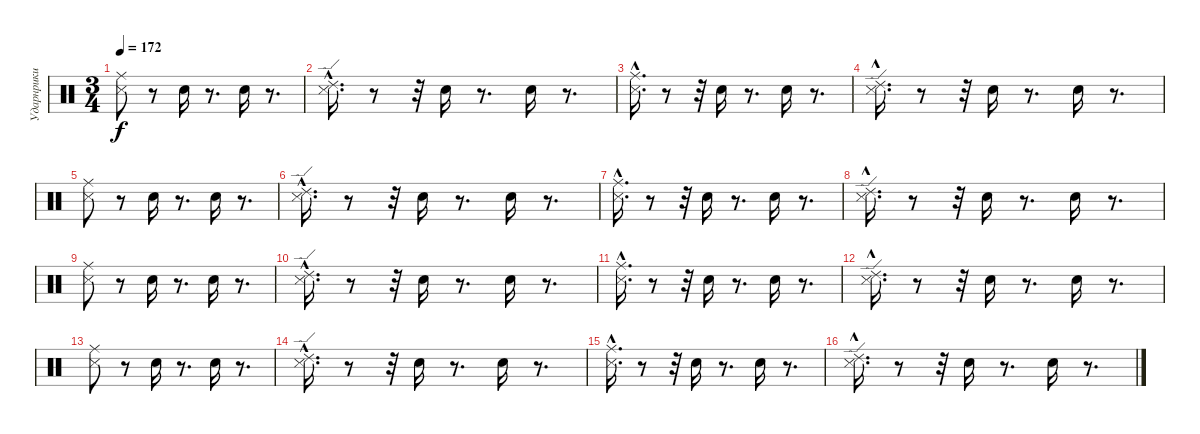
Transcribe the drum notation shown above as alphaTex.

\track ("Ударнрики" "Ударнрики") {instrument percussion}
\staff {score}
\articulation defaults
\ts (3 4)
\tempo 172
\clef neutral
\ks c
("Ride (middle)" "Metronome (hit)").8{dy f} r.8 "Electric Snare (hit)".16 r.8{d} "Electric Snare (hit)".16 r.8{d} |
("Ride (edge) 2"{hac} "Metronome (hit)"{hac}).16{d} r.8 r.32 "Electric Snare (hit)".16 r.8{d} "Electric Snare (hit)".16 r.8{d} |
("Ride (middle)" "Metronome (hit)"{hac}).16{d} r.8 r.32 "Electric Snare (hit)".16 r.8{d} "Electric Snare (hit)".16 r.8{d} |
("Ride (edge) 2" "Metronome (hit)"{hac}).16{d} r.8 r.32 "Electric Snare (hit)".16 r.8{d} "Electric Snare (hit)".16 r.8{d} |
("Ride (middle)" "Metronome (hit)").8 r.8 "Electric Snare (hit)".16 r.8{d} "Electric Snare (hit)".16 r.8{d} |
("Ride (edge) 2"{hac} "Metronome (hit)"{hac}).16{d} r.8 r.32 "Electric Snare (hit)".16 r.8{d} "Electric Snare (hit)".16 r.8{d} |
("Ride (middle)" "Metronome (hit)"{hac}).16{d} r.8 r.32 "Electric Snare (hit)".16 r.8{d} "Electric Snare (hit)".16 r.8{d} |
("Ride (edge) 2" "Metronome (hit)"{hac}).16{d} r.8 r.32 "Electric Snare (hit)".16 r.8{d} "Electric Snare (hit)".16 r.8{d} |
("Ride (middle)" "Metronome (hit)").8 r.8 "Electric Snare (hit)".16 r.8{d} "Electric Snare (hit)".16 r.8{d} |
("Ride (edge) 2"{hac} "Metronome (hit)"{hac}).16{d} r.8 r.32 "Electric Snare (hit)".16 r.8{d} "Electric Snare (hit)".16 r.8{d} |
("Ride (middle)" "Metronome (hit)"{hac}).16{d} r.8 r.32 "Electric Snare (hit)".16 r.8{d} "Electric Snare (hit)".16 r.8{d} |
("Ride (edge) 2" "Metronome (hit)"{hac}).16{d} r.8 r.32 "Electric Snare (hit)".16 r.8{d} "Electric Snare (hit)".16 r.8{d} |
("Ride (middle)" "Metronome (hit)").8 r.8 "Electric Snare (hit)".16 r.8{d} "Electric Snare (hit)".16 r.8{d} |
("Ride (edge) 2"{hac} "Metronome (hit)"{hac}).16{d} r.8 r.32 "Electric Snare (hit)".16 r.8{d} "Electric Snare (hit)".16 r.8{d} |
("Ride (middle)" "Metronome (hit)"{hac}).16{d} r.8 r.32 "Electric Snare (hit)".16 r.8{d} "Electric Snare (hit)".16 r.8{d} |
("Ride (edge) 2" "Metronome (hit)"{hac}).16{d} r.8 r.32 "Electric Snare (hit)".16 r.8{d} "Electric Snare (hit)".16 r.8{d}
